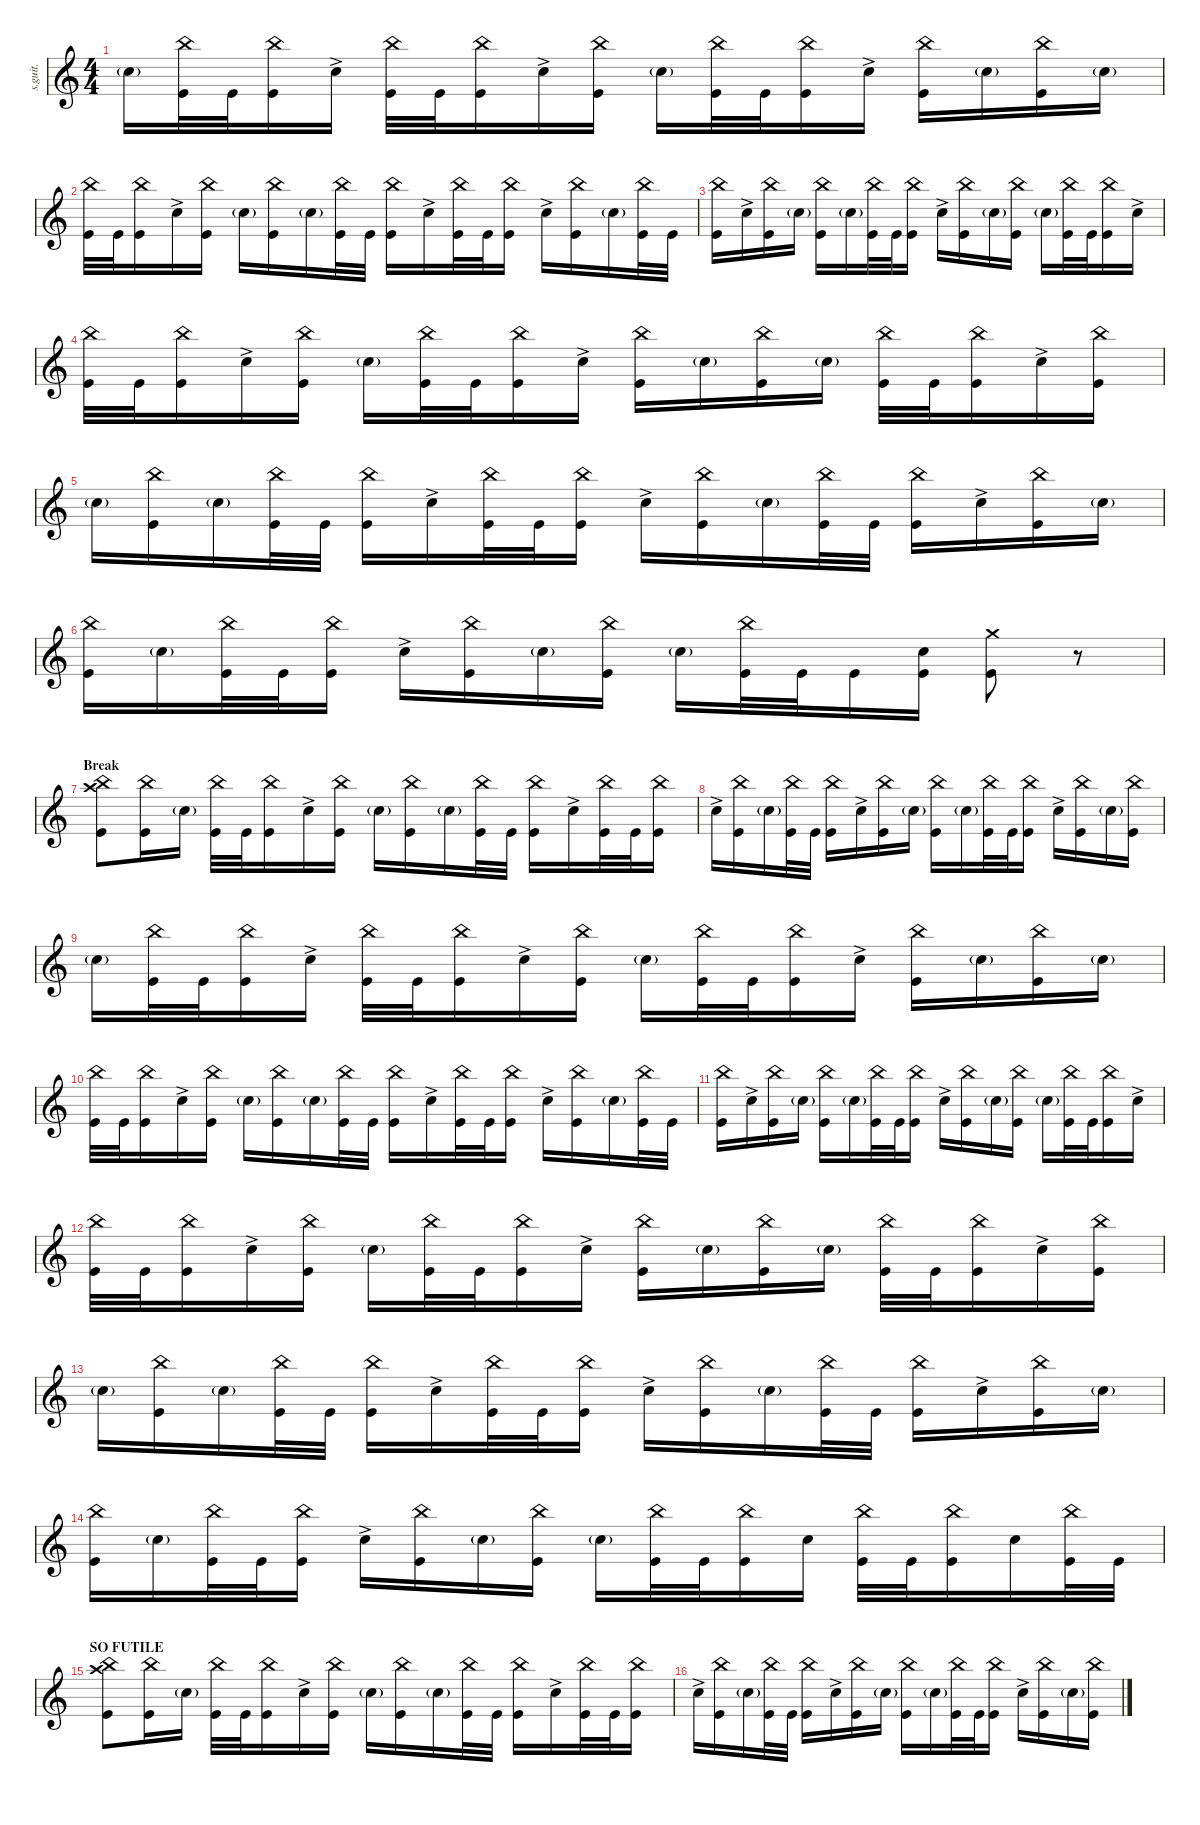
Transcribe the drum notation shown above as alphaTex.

\defaultSystemsLayout 4
\hideDynamics
\bracketExtendMode nobrackets
\track ("Tomas Haake (Drums)" "s.guit.") {instrument percussion}
\staff {score}
\articulation defaults
\ts (4 4)
\tempo (115 hide)
\clef g2
\ks c "Snare (hit) 2"{g}.16{lyrics (0 "") lyrics (1 "") lyrics (2 "") lyrics (3 "") lyrics (4 "") dy f}
("China (hit)" "Kick (hit)").32{lyrics (0 "") lyrics (1 "") lyrics (2 "") lyrics (3 "") lyrics (4 "") dy mf} "Kick (hit)".32{lyrics (0 "") lyrics (1 "") lyrics (2 "") lyrics (3 "") lyrics (4 "")} ("China (hit)" "Kick (hit)").16{lyrics (0 "") lyrics (1 "") lyrics (2 "") lyrics (3 "") lyrics (4 "") dy f} "Snare (hit) 2"{ac}.16{lyrics (0 "") lyrics (1 "") lyrics (2 "") lyrics (3 "") lyrics (4 "") dy pp} ("China (hit)" "Kick (hit)").32{lyrics (0 "") lyrics (1 "") lyrics (2 "") lyrics (3 "") lyrics (4 "") dy mf} "Kick (hit)".32{lyrics (0 "") lyrics (1 "") lyrics (2 "") lyrics (3 "") lyrics (4 "")} ("China (hit)" "Kick (hit)").16{lyrics (0 "") lyrics (1 "") lyrics (2 "") lyrics (3 "") lyrics (4 "") dy f} "Snare (hit) 2"{ac}.16{lyrics (0 "") lyrics (1 "") lyrics (2 "") lyrics (3 "") lyrics (4 "") dy pp} ("China (hit)" "Kick (hit)").16{lyrics (0 "") lyrics (1 "") lyrics (2 "") lyrics (3 "") lyrics (4 "") dy f} "Snare (hit) 2"{g}.16{lyrics (0 "") lyrics (1 "") lyrics (2 "") lyrics (3 "") lyrics (4 "")} ("China (hit)" "Kick (hit)").32{lyrics (0 "") lyrics (1 "") lyrics (2 "") lyrics (3 "") lyrics (4 "") dy mf} "Kick (hit)".32{lyrics (0 "") lyrics (1 "") lyrics (2 "") lyrics (3 "") lyrics (4 "")} ("China (hit)" "Kick (hit)").16{lyrics (0 "") lyrics (1 "") lyrics (2 "") lyrics (3 "") lyrics (4 "") dy f} "Snare (hit) 2"{ac}.16{lyrics (0 "") lyrics (1 "") lyrics (2 "") lyrics (3 "") lyrics (4 "") dy pp} ("China (hit)" "Kick (hit)").16{lyrics (0 "") lyrics (1 "") lyrics (2 "") lyrics (3 "") lyrics (4 "") dy f} "Snare (hit) 2"{g}.16{lyrics (0 "") lyrics (1 "") lyrics (2 "") lyrics (3 "") lyrics (4 "")} ("China (hit)" "Kick (hit)").16{lyrics (0 "") lyrics (1 "") lyrics (2 "") lyrics (3 "") lyrics (4 "")} "Snare (hit) 2"{g}.16{lyrics (0 "") lyrics (1 "") lyrics (2 "") lyrics (3 "") lyrics (4 "")} |
("China (hit)" "Kick (hit)").32{lyrics (0 "") lyrics (1 "") lyrics (2 "") lyrics (3 "") lyrics (4 "") dy mf} "Kick (hit)".32{lyrics (0 "") lyrics (1 "") lyrics (2 "") lyrics (3 "") lyrics (4 "")} ("China (hit)" "Kick (hit)").16{lyrics (0 "") lyrics (1 "") lyrics (2 "") lyrics (3 "") lyrics (4 "") dy f} "Snare (hit) 2"{ac}.16{lyrics (0 "") lyrics (1 "") lyrics (2 "") lyrics (3 "") lyrics (4 "") dy pp} ("China (hit)" "Kick (hit)").16{lyrics (0 "") lyrics (1 "") lyrics (2 "") lyrics (3 "") lyrics (4 "") dy f} "Snare (hit) 2"{g}.16{lyrics (0 "") lyrics (1 "") lyrics (2 "") lyrics (3 "") lyrics (4 "")} ("China (hit)" "Kick (hit)").16{lyrics (0 "") lyrics (1 "") lyrics (2 "") lyrics (3 "") lyrics (4 "")} "Snare (hit) 2"{g}.16{lyrics (0 "") lyrics (1 "") lyrics (2 "") lyrics (3 "") lyrics (4 "")} ("China (hit)" "Kick (hit)").32{lyrics (0 "") lyrics (1 "") lyrics (2 "") lyrics (3 "") lyrics (4 "") dy mf} "Kick (hit)".32{lyrics (0 "") lyrics (1 "") lyrics (2 "") lyrics (3 "") lyrics (4 "")} ("China (hit)" "Kick (hit)").16{lyrics (0 "") lyrics (1 "") lyrics (2 "") lyrics (3 "") lyrics (4 "") dy f} "Snare (hit) 2"{ac}.16{lyrics (0 "") lyrics (1 "") lyrics (2 "") lyrics (3 "") lyrics (4 "") dy pp} ("China (hit)" "Kick (hit)").32{lyrics (0 "") lyrics (1 "") lyrics (2 "") lyrics (3 "") lyrics (4 "") dy mf} "Kick (hit)".32{lyrics (0 "") lyrics (1 "") lyrics (2 "") lyrics (3 "") lyrics (4 "")} ("China (hit)" "Kick (hit)").16{lyrics (0 "") lyrics (1 "") lyrics (2 "") lyrics (3 "") lyrics (4 "") dy f} "Snare (hit) 2"{ac}.16{lyrics (0 "") lyrics (1 "") lyrics (2 "") lyrics (3 "") lyrics (4 "") dy pp} ("China (hit)" "Kick (hit)").16{lyrics (0 "") lyrics (1 "") lyrics (2 "") lyrics (3 "") lyrics (4 "") dy f} "Snare (hit) 2"{g}.16{lyrics (0 "") lyrics (1 "") lyrics (2 "") lyrics (3 "") lyrics (4 "")} ("China (hit)" "Kick (hit)").32{lyrics (0 "") lyrics (1 "") lyrics (2 "") lyrics (3 "") lyrics (4 "") dy mf} "Kick (hit)".32{lyrics (0 "") lyrics (1 "") lyrics (2 "") lyrics (3 "") lyrics (4 "")} |
("China (hit)" "Kick (hit)").16{lyrics (0 "") lyrics (1 "") lyrics (2 "") lyrics (3 "") lyrics (4 "") dy f} "Snare (hit) 2"{ac}.16{lyrics (0 "") lyrics (1 "") lyrics (2 "") lyrics (3 "") lyrics (4 "") dy pp} ("China (hit)" "Kick (hit)").16{lyrics (0 "") lyrics (1 "") lyrics (2 "") lyrics (3 "") lyrics (4 "") dy f} "Snare (hit) 2"{g}.16{lyrics (0 "") lyrics (1 "") lyrics (2 "") lyrics (3 "") lyrics (4 "")} ("China (hit)" "Kick (hit)").16{lyrics (0 "") lyrics (1 "") lyrics (2 "") lyrics (3 "") lyrics (4 "")} "Snare (hit) 2"{g}.16{lyrics (0 "") lyrics (1 "") lyrics (2 "") lyrics (3 "") lyrics (4 "")} ("China (hit)" "Kick (hit)").32{lyrics (0 "") lyrics (1 "") lyrics (2 "") lyrics (3 "") lyrics (4 "") dy mf} "Kick (hit)".32{lyrics (0 "") lyrics (1 "") lyrics (2 "") lyrics (3 "") lyrics (4 "")} ("China (hit)" "Kick (hit)").16{lyrics (0 "") lyrics (1 "") lyrics (2 "") lyrics (3 "") lyrics (4 "") dy f} "Snare (hit) 2"{ac}.16{lyrics (0 "") lyrics (1 "") lyrics (2 "") lyrics (3 "") lyrics (4 "") dy pp} ("China (hit)" "Kick (hit)").16{lyrics (0 "") lyrics (1 "") lyrics (2 "") lyrics (3 "") lyrics (4 "") dy f} "Snare (hit) 2"{g}.16{lyrics (0 "") lyrics (1 "") lyrics (2 "") lyrics (3 "") lyrics (4 "")} ("China (hit)" "Kick (hit)").16{lyrics (0 "") lyrics (1 "") lyrics (2 "") lyrics (3 "") lyrics (4 "")} "Snare (hit) 2"{g}.16{lyrics (0 "") lyrics (1 "") lyrics (2 "") lyrics (3 "") lyrics (4 "")} ("China (hit)" "Kick (hit)").32{lyrics (0 "") lyrics (1 "") lyrics (2 "") lyrics (3 "") lyrics (4 "") dy mf} "Kick (hit)".32{lyrics (0 "") lyrics (1 "") lyrics (2 "") lyrics (3 "") lyrics (4 "")} ("China (hit)" "Kick (hit)").16{lyrics (0 "") lyrics (1 "") lyrics (2 "") lyrics (3 "") lyrics (4 "") dy f} "Snare (hit) 2"{ac}.16{lyrics (0 "") lyrics (1 "") lyrics (2 "") lyrics (3 "") lyrics (4 "") dy pp} |
("China (hit)" "Kick (hit)").32{lyrics (0 "") lyrics (1 "") lyrics (2 "") lyrics (3 "") lyrics (4 "") dy mf} "Kick (hit)".32{lyrics (0 "") lyrics (1 "") lyrics (2 "") lyrics (3 "") lyrics (4 "")} ("China (hit)" "Kick (hit)").16{lyrics (0 "") lyrics (1 "") lyrics (2 "") lyrics (3 "") lyrics (4 "") dy f} "Snare (hit) 2"{ac}.16{lyrics (0 "") lyrics (1 "") lyrics (2 "") lyrics (3 "") lyrics (4 "") dy pp} ("China (hit)" "Kick (hit)").16{lyrics (0 "") lyrics (1 "") lyrics (2 "") lyrics (3 "") lyrics (4 "") dy f} "Snare (hit) 2"{g}.16{lyrics (0 "") lyrics (1 "") lyrics (2 "") lyrics (3 "") lyrics (4 "")} ("China (hit)" "Kick (hit)").32{lyrics (0 "") lyrics (1 "") lyrics (2 "") lyrics (3 "") lyrics (4 "") dy mf} "Kick (hit)".32{lyrics (0 "") lyrics (1 "") lyrics (2 "") lyrics (3 "") lyrics (4 "")} ("China (hit)" "Kick (hit)").16{lyrics (0 "") lyrics (1 "") lyrics (2 "") lyrics (3 "") lyrics (4 "") dy f} "Snare (hit) 2"{ac}.16{lyrics (0 "") lyrics (1 "") lyrics (2 "") lyrics (3 "") lyrics (4 "") dy pp} ("China (hit)" "Kick (hit)").16{lyrics (0 "") lyrics (1 "") lyrics (2 "") lyrics (3 "") lyrics (4 "") dy f} "Snare (hit) 2"{g}.16{lyrics (0 "") lyrics (1 "") lyrics (2 "") lyrics (3 "") lyrics (4 "")} ("China (hit)" "Kick (hit)").16{lyrics (0 "") lyrics (1 "") lyrics (2 "") lyrics (3 "") lyrics (4 "")} "Snare (hit) 2"{g}.16{lyrics (0 "") lyrics (1 "") lyrics (2 "") lyrics (3 "") lyrics (4 "")} ("China (hit)" "Kick (hit)").32{lyrics (0 "") lyrics (1 "") lyrics (2 "") lyrics (3 "") lyrics (4 "") dy mf} "Kick (hit)".32{lyrics (0 "") lyrics (1 "") lyrics (2 "") lyrics (3 "") lyrics (4 "")} ("China (hit)" "Kick (hit)").16{lyrics (0 "") lyrics (1 "") lyrics (2 "") lyrics (3 "") lyrics (4 "") dy f} "Snare (hit) 2"{ac}.16{lyrics (0 "") lyrics (1 "") lyrics (2 "") lyrics (3 "") lyrics (4 "") dy pp} ("China (hit)" "Kick (hit)").16{lyrics (0 "") lyrics (1 "") lyrics (2 "") lyrics (3 "") lyrics (4 "") dy f} |
"Snare (hit) 2"{g}.16{lyrics (0 "") lyrics (1 "") lyrics (2 "") lyrics (3 "") lyrics (4 "")} ("China (hit)" "Kick (hit)").16{lyrics (0 "") lyrics (1 "") lyrics (2 "") lyrics (3 "") lyrics (4 "")} "Snare (hit) 2"{g}.16{lyrics (0 "") lyrics (1 "") lyrics (2 "") lyrics (3 "") lyrics (4 "")} ("China (hit)" "Kick (hit)").32{lyrics (0 "") lyrics (1 "") lyrics (2 "") lyrics (3 "") lyrics (4 "") dy mf} "Kick (hit)".32{lyrics (0 "") lyrics (1 "") lyrics (2 "") lyrics (3 "") lyrics (4 "")} ("China (hit)" "Kick (hit)").16{lyrics (0 "") lyrics (1 "") lyrics (2 "") lyrics (3 "") lyrics (4 "") dy f} "Snare (hit) 2"{ac}.16{lyrics (0 "") lyrics (1 "") lyrics (2 "") lyrics (3 "") lyrics (4 "") dy pp} ("China (hit)" "Kick (hit)").32{lyrics (0 "") lyrics (1 "") lyrics (2 "") lyrics (3 "") lyrics (4 "") dy mf} "Kick (hit)".32{lyrics (0 "") lyrics (1 "") lyrics (2 "") lyrics (3 "") lyrics (4 "")} ("China (hit)" "Kick (hit)").16{lyrics (0 "") lyrics (1 "") lyrics (2 "") lyrics (3 "") lyrics (4 "") dy f} "Snare (hit) 2"{ac}.16{lyrics (0 "") lyrics (1 "") lyrics (2 "") lyrics (3 "") lyrics (4 "") dy pp} ("China (hit)" "Kick (hit)").16{lyrics (0 "") lyrics (1 "") lyrics (2 "") lyrics (3 "") lyrics (4 "") dy f} "Snare (hit) 2"{g}.16{lyrics (0 "") lyrics (1 "") lyrics (2 "") lyrics (3 "") lyrics (4 "")} ("China (hit)" "Kick (hit)").32{lyrics (0 "") lyrics (1 "") lyrics (2 "") lyrics (3 "") lyrics (4 "") dy mf} "Kick (hit)".32{lyrics (0 "") lyrics (1 "") lyrics (2 "") lyrics (3 "") lyrics (4 "")} ("China (hit)" "Kick (hit)").16{lyrics (0 "") lyrics (1 "") lyrics (2 "") lyrics (3 "") lyrics (4 "") dy f} "Snare (hit) 2"{ac}.16{lyrics (0 "") lyrics (1 "") lyrics (2 "") lyrics (3 "") lyrics (4 "") dy pp} ("China (hit)" "Kick (hit)").16{lyrics (0 "") lyrics (1 "") lyrics (2 "") lyrics (3 "") lyrics (4 "") dy f} "Snare (hit) 2"{g}.16{lyrics (0 "") lyrics (1 "") lyrics (2 "") lyrics (3 "") lyrics (4 "")} |
("China (hit)" "Kick (hit)").16{lyrics (0 "") lyrics (1 "") lyrics (2 "") lyrics (3 "") lyrics (4 "")} "Snare (hit) 2"{g}.16{lyrics (0 "") lyrics (1 "") lyrics (2 "") lyrics (3 "") lyrics (4 "")} ("China (hit)" "Kick (hit)").32{lyrics (0 "") lyrics (1 "") lyrics (2 "") lyrics (3 "") lyrics (4 "") dy mf} "Kick (hit)".32{lyrics (0 "") lyrics (1 "") lyrics (2 "") lyrics (3 "") lyrics (4 "")} ("China (hit)" "Kick (hit)").16{lyrics (0 "") lyrics (1 "") lyrics (2 "") lyrics (3 "") lyrics (4 "") dy f} "Snare (hit) 2"{ac}.16{lyrics (0 "") lyrics (1 "") lyrics (2 "") lyrics (3 "") lyrics (4 "") dy pp} ("China (hit)" "Kick (hit)").16{lyrics (0 "") lyrics (1 "") lyrics (2 "") lyrics (3 "") lyrics (4 "") dy f} "Snare (hit) 2"{g}.16{lyrics (0 "") lyrics (1 "") lyrics (2 "") lyrics (3 "") lyrics (4 "")} ("China (hit)" "Kick (hit)").16{lyrics (0 "") lyrics (1 "") lyrics (2 "") lyrics (3 "") lyrics (4 "")} "Snare (hit) 2"{g}.16{lyrics (0 "") lyrics (1 "") lyrics (2 "") lyrics (3 "") lyrics (4 "") dy fff} ("China (hit)" "Kick (hit)").32{lyrics (0 "") lyrics (1 "") lyrics (2 "") lyrics (3 "") lyrics (4 "") dy mp} "Kick (hit)".32{lyrics (0 "") lyrics (1 "") lyrics (2 "") lyrics (3 "") lyrics (4 "") dy mf} "Kick (hit)".16{lyrics (0 "") lyrics (1 "") lyrics (2 "") lyrics (3 "") lyrics (4 "") dy f} ("Snare (hit) 2" "Kick (hit)").16{lyrics (0 "") lyrics (1 "") lyrics (2 "") lyrics (3 "") lyrics (4 "")} ("Crash medium (hit)" "Kick (hit)").8{lyrics (0 "") lyrics (1 "") lyrics (2 "") lyrics (3 "") lyrics (4 "") dy mf} r.8 |
\section ("" "Break")
("China (hit)" "Crash high (hit)" "Kick (hit)").8{lyrics (0 "") lyrics (1 "") lyrics (2 "") lyrics (3 "") lyrics (4 "") dy f} ("China (hit)" "Kick (hit)").16{lyrics (0 "") lyrics (1 "") lyrics (2 "") lyrics (3 "") lyrics (4 "")} "Snare (hit) 2"{g}.16{lyrics (0 "") lyrics (1 "") lyrics (2 "") lyrics (3 "") lyrics (4 "")} ("China (hit)" "Kick (hit)").32{lyrics (0 "") lyrics (1 "") lyrics (2 "") lyrics (3 "") lyrics (4 "") dy mf} "Kick (hit)".32{lyrics (0 "") lyrics (1 "") lyrics (2 "") lyrics (3 "") lyrics (4 "")} ("China (hit)" "Kick (hit)").16{lyrics (0 "") lyrics (1 "") lyrics (2 "") lyrics (3 "") lyrics (4 "") dy f} "Snare (hit) 2"{ac}.16{lyrics (0 "") lyrics (1 "") lyrics (2 "") lyrics (3 "") lyrics (4 "") dy pp} ("China (hit)" "Kick (hit)").16{lyrics (0 "") lyrics (1 "") lyrics (2 "") lyrics (3 "") lyrics (4 "") dy f} "Snare (hit) 2"{g}.16{lyrics (0 "") lyrics (1 "") lyrics (2 "") lyrics (3 "") lyrics (4 "")} ("China (hit)" "Kick (hit)").16{lyrics (0 "") lyrics (1 "") lyrics (2 "") lyrics (3 "") lyrics (4 "")} "Snare (hit) 2"{g}.16{lyrics (0 "") lyrics (1 "") lyrics (2 "") lyrics (3 "") lyrics (4 "")} ("China (hit)" "Kick (hit)").32{lyrics (0 "") lyrics (1 "") lyrics (2 "") lyrics (3 "") lyrics (4 "") dy mf} "Kick (hit)".32{lyrics (0 "") lyrics (1 "") lyrics (2 "") lyrics (3 "") lyrics (4 "")} ("China (hit)" "Kick (hit)").16{lyrics (0 "") lyrics (1 "") lyrics (2 "") lyrics (3 "") lyrics (4 "") dy f} "Snare (hit) 2"{ac}.16{lyrics (0 "") lyrics (1 "") lyrics (2 "") lyrics (3 "") lyrics (4 "") dy pp} ("China (hit)" "Kick (hit)").32{lyrics (0 "") lyrics (1 "") lyrics (2 "") lyrics (3 "") lyrics (4 "") dy mf} "Kick (hit)".32{lyrics (0 "") lyrics (1 "") lyrics (2 "") lyrics (3 "") lyrics (4 "")} ("China (hit)" "Kick (hit)").16{lyrics (0 "") lyrics (1 "") lyrics (2 "") lyrics (3 "") lyrics (4 "") dy f} |
"Snare (hit) 2"{ac}.16{lyrics (0 "") lyrics (1 "") lyrics (2 "") lyrics (3 "") lyrics (4 "") dy pp} ("China (hit)" "Kick (hit)").16{lyrics (0 "") lyrics (1 "") lyrics (2 "") lyrics (3 "") lyrics (4 "") dy f} "Snare (hit) 2"{g}.16{lyrics (0 "") lyrics (1 "") lyrics (2 "") lyrics (3 "") lyrics (4 "")} ("China (hit)" "Kick (hit)").32{lyrics (0 "") lyrics (1 "") lyrics (2 "") lyrics (3 "") lyrics (4 "") dy mf} "Kick (hit)".32{lyrics (0 "") lyrics (1 "") lyrics (2 "") lyrics (3 "") lyrics (4 "")} ("China (hit)" "Kick (hit)").16{lyrics (0 "") lyrics (1 "") lyrics (2 "") lyrics (3 "") lyrics (4 "") dy f} "Snare (hit) 2"{ac}.16{lyrics (0 "") lyrics (1 "") lyrics (2 "") lyrics (3 "") lyrics (4 "") dy pp} ("China (hit)" "Kick (hit)").16{lyrics (0 "") lyrics (1 "") lyrics (2 "") lyrics (3 "") lyrics (4 "") dy f} "Snare (hit) 2"{g}.16{lyrics (0 "") lyrics (1 "") lyrics (2 "") lyrics (3 "") lyrics (4 "")} ("China (hit)" "Kick (hit)").16{lyrics (0 "") lyrics (1 "") lyrics (2 "") lyrics (3 "") lyrics (4 "")} "Snare (hit) 2"{g}.16{lyrics (0 "") lyrics (1 "") lyrics (2 "") lyrics (3 "") lyrics (4 "")} ("China (hit)" "Kick (hit)").32{lyrics (0 "") lyrics (1 "") lyrics (2 "") lyrics (3 "") lyrics (4 "") dy mf} "Kick (hit)".32{lyrics (0 "") lyrics (1 "") lyrics (2 "") lyrics (3 "") lyrics (4 "")} ("China (hit)" "Kick (hit)").16{lyrics (0 "") lyrics (1 "") lyrics (2 "") lyrics (3 "") lyrics (4 "") dy f} "Snare (hit) 2"{ac}.16{lyrics (0 "") lyrics (1 "") lyrics (2 "") lyrics (3 "") lyrics (4 "") dy pp} ("China (hit)" "Kick (hit)").16{lyrics (0 "") lyrics (1 "") lyrics (2 "") lyrics (3 "") lyrics (4 "") dy f} "Snare (hit) 2"{g}.16{lyrics (0 "") lyrics (1 "") lyrics (2 "") lyrics (3 "") lyrics (4 "")} ("China (hit)" "Kick (hit)").16{lyrics (0 "") lyrics (1 "") lyrics (2 "") lyrics (3 "") lyrics (4 "")} |
"Snare (hit) 2"{g}.16{lyrics (0 "") lyrics (1 "") lyrics (2 "") lyrics (3 "") lyrics (4 "")} ("China (hit)" "Kick (hit)").32{lyrics (0 "") lyrics (1 "") lyrics (2 "") lyrics (3 "") lyrics (4 "") dy mf} "Kick (hit)".32{lyrics (0 "") lyrics (1 "") lyrics (2 "") lyrics (3 "") lyrics (4 "")} ("China (hit)" "Kick (hit)").16{lyrics (0 "") lyrics (1 "") lyrics (2 "") lyrics (3 "") lyrics (4 "") dy f} "Snare (hit) 2"{ac}.16{lyrics (0 "") lyrics (1 "") lyrics (2 "") lyrics (3 "") lyrics (4 "") dy pp} ("China (hit)" "Kick (hit)").32{lyrics (0 "") lyrics (1 "") lyrics (2 "") lyrics (3 "") lyrics (4 "") dy mf} "Kick (hit)".32{lyrics (0 "") lyrics (1 "") lyrics (2 "") lyrics (3 "") lyrics (4 "")} ("China (hit)" "Kick (hit)").16{lyrics (0 "") lyrics (1 "") lyrics (2 "") lyrics (3 "") lyrics (4 "") dy f} "Snare (hit) 2"{ac}.16{lyrics (0 "") lyrics (1 "") lyrics (2 "") lyrics (3 "") lyrics (4 "") dy pp} ("China (hit)" "Kick (hit)").16{lyrics (0 "") lyrics (1 "") lyrics (2 "") lyrics (3 "") lyrics (4 "") dy f} "Snare (hit) 2"{g}.16{lyrics (0 "") lyrics (1 "") lyrics (2 "") lyrics (3 "") lyrics (4 "")} ("China (hit)" "Kick (hit)").32{lyrics (0 "") lyrics (1 "") lyrics (2 "") lyrics (3 "") lyrics (4 "") dy mf} "Kick (hit)".32{lyrics (0 "") lyrics (1 "") lyrics (2 "") lyrics (3 "") lyrics (4 "")} ("China (hit)" "Kick (hit)").16{lyrics (0 "") lyrics (1 "") lyrics (2 "") lyrics (3 "") lyrics (4 "") dy f} "Snare (hit) 2"{ac}.16{lyrics (0 "") lyrics (1 "") lyrics (2 "") lyrics (3 "") lyrics (4 "") dy pp} ("China (hit)" "Kick (hit)").16{lyrics (0 "") lyrics (1 "") lyrics (2 "") lyrics (3 "") lyrics (4 "") dy f} "Snare (hit) 2"{g}.16{lyrics (0 "") lyrics (1 "") lyrics (2 "") lyrics (3 "") lyrics (4 "")} ("China (hit)" "Kick (hit)").16{lyrics (0 "") lyrics (1 "") lyrics (2 "") lyrics (3 "") lyrics (4 "")} "Snare (hit) 2"{g}.16{lyrics (0 "") lyrics (1 "") lyrics (2 "") lyrics (3 "") lyrics (4 "")} |
("China (hit)" "Kick (hit)").32{lyrics (0 "") lyrics (1 "") lyrics (2 "") lyrics (3 "") lyrics (4 "") dy mf} "Kick (hit)".32{lyrics (0 "") lyrics (1 "") lyrics (2 "") lyrics (3 "") lyrics (4 "")} ("China (hit)" "Kick (hit)").16{lyrics (0 "") lyrics (1 "") lyrics (2 "") lyrics (3 "") lyrics (4 "") dy f} "Snare (hit) 2"{ac}.16{lyrics (0 "") lyrics (1 "") lyrics (2 "") lyrics (3 "") lyrics (4 "") dy pp} ("China (hit)" "Kick (hit)").16{lyrics (0 "") lyrics (1 "") lyrics (2 "") lyrics (3 "") lyrics (4 "") dy f} "Snare (hit) 2"{g}.16{lyrics (0 "") lyrics (1 "") lyrics (2 "") lyrics (3 "") lyrics (4 "")} ("China (hit)" "Kick (hit)").16{lyrics (0 "") lyrics (1 "") lyrics (2 "") lyrics (3 "") lyrics (4 "")} "Snare (hit) 2"{g}.16{lyrics (0 "") lyrics (1 "") lyrics (2 "") lyrics (3 "") lyrics (4 "")} ("China (hit)" "Kick (hit)").32{lyrics (0 "") lyrics (1 "") lyrics (2 "") lyrics (3 "") lyrics (4 "") dy mf} "Kick (hit)".32{lyrics (0 "") lyrics (1 "") lyrics (2 "") lyrics (3 "") lyrics (4 "")} ("China (hit)" "Kick (hit)").16{lyrics (0 "") lyrics (1 "") lyrics (2 "") lyrics (3 "") lyrics (4 "") dy f} "Snare (hit) 2"{ac}.16{lyrics (0 "") lyrics (1 "") lyrics (2 "") lyrics (3 "") lyrics (4 "") dy pp} ("China (hit)" "Kick (hit)").32{lyrics (0 "") lyrics (1 "") lyrics (2 "") lyrics (3 "") lyrics (4 "") dy mf} "Kick (hit)".32{lyrics (0 "") lyrics (1 "") lyrics (2 "") lyrics (3 "") lyrics (4 "")} ("China (hit)" "Kick (hit)").16{lyrics (0 "") lyrics (1 "") lyrics (2 "") lyrics (3 "") lyrics (4 "") dy f} "Snare (hit) 2"{ac}.16{lyrics (0 "") lyrics (1 "") lyrics (2 "") lyrics (3 "") lyrics (4 "") dy pp} ("China (hit)" "Kick (hit)").16{lyrics (0 "") lyrics (1 "") lyrics (2 "") lyrics (3 "") lyrics (4 "") dy f} "Snare (hit) 2"{g}.16{lyrics (0 "") lyrics (1 "") lyrics (2 "") lyrics (3 "") lyrics (4 "")} ("China (hit)" "Kick (hit)").32{lyrics (0 "") lyrics (1 "") lyrics (2 "") lyrics (3 "") lyrics (4 "") dy mf} "Kick (hit)".32{lyrics (0 "") lyrics (1 "") lyrics (2 "") lyrics (3 "") lyrics (4 "")} |
("China (hit)" "Kick (hit)").16{lyrics (0 "") lyrics (1 "") lyrics (2 "") lyrics (3 "") lyrics (4 "") dy f} "Snare (hit) 2"{ac}.16{lyrics (0 "") lyrics (1 "") lyrics (2 "") lyrics (3 "") lyrics (4 "") dy pp} ("China (hit)" "Kick (hit)").16{lyrics (0 "") lyrics (1 "") lyrics (2 "") lyrics (3 "") lyrics (4 "") dy f} "Snare (hit) 2"{g}.16{lyrics (0 "") lyrics (1 "") lyrics (2 "") lyrics (3 "") lyrics (4 "")} ("China (hit)" "Kick (hit)").16{lyrics (0 "") lyrics (1 "") lyrics (2 "") lyrics (3 "") lyrics (4 "")} "Snare (hit) 2"{g}.16{lyrics (0 "") lyrics (1 "") lyrics (2 "") lyrics (3 "") lyrics (4 "")} ("China (hit)" "Kick (hit)").32{lyrics (0 "") lyrics (1 "") lyrics (2 "") lyrics (3 "") lyrics (4 "") dy mf} "Kick (hit)".32{lyrics (0 "") lyrics (1 "") lyrics (2 "") lyrics (3 "") lyrics (4 "")} ("China (hit)" "Kick (hit)").16{lyrics (0 "") lyrics (1 "") lyrics (2 "") lyrics (3 "") lyrics (4 "") dy f} "Snare (hit) 2"{ac}.16{lyrics (0 "") lyrics (1 "") lyrics (2 "") lyrics (3 "") lyrics (4 "") dy pp} ("China (hit)" "Kick (hit)").16{lyrics (0 "") lyrics (1 "") lyrics (2 "") lyrics (3 "") lyrics (4 "") dy f} "Snare (hit) 2"{g}.16{lyrics (0 "") lyrics (1 "") lyrics (2 "") lyrics (3 "") lyrics (4 "")} ("China (hit)" "Kick (hit)").16{lyrics (0 "") lyrics (1 "") lyrics (2 "") lyrics (3 "") lyrics (4 "")} "Snare (hit) 2"{g}.16{lyrics (0 "") lyrics (1 "") lyrics (2 "") lyrics (3 "") lyrics (4 "")} ("China (hit)" "Kick (hit)").32{lyrics (0 "") lyrics (1 "") lyrics (2 "") lyrics (3 "") lyrics (4 "") dy mf} "Kick (hit)".32{lyrics (0 "") lyrics (1 "") lyrics (2 "") lyrics (3 "") lyrics (4 "")} ("China (hit)" "Kick (hit)").16{lyrics (0 "") lyrics (1 "") lyrics (2 "") lyrics (3 "") lyrics (4 "") dy f} "Snare (hit) 2"{ac}.16{lyrics (0 "") lyrics (1 "") lyrics (2 "") lyrics (3 "") lyrics (4 "") dy pp} |
("China (hit)" "Kick (hit)").32{lyrics (0 "") lyrics (1 "") lyrics (2 "") lyrics (3 "") lyrics (4 "") dy mf} "Kick (hit)".32{lyrics (0 "") lyrics (1 "") lyrics (2 "") lyrics (3 "") lyrics (4 "")} ("China (hit)" "Kick (hit)").16{lyrics (0 "") lyrics (1 "") lyrics (2 "") lyrics (3 "") lyrics (4 "") dy f} "Snare (hit) 2"{ac}.16{lyrics (0 "") lyrics (1 "") lyrics (2 "") lyrics (3 "") lyrics (4 "") dy pp} ("China (hit)" "Kick (hit)").16{lyrics (0 "") lyrics (1 "") lyrics (2 "") lyrics (3 "") lyrics (4 "") dy f} "Snare (hit) 2"{g}.16{lyrics (0 "") lyrics (1 "") lyrics (2 "") lyrics (3 "") lyrics (4 "")} ("China (hit)" "Kick (hit)").32{lyrics (0 "") lyrics (1 "") lyrics (2 "") lyrics (3 "") lyrics (4 "") dy mf} "Kick (hit)".32{lyrics (0 "") lyrics (1 "") lyrics (2 "") lyrics (3 "") lyrics (4 "")} ("China (hit)" "Kick (hit)").16{lyrics (0 "") lyrics (1 "") lyrics (2 "") lyrics (3 "") lyrics (4 "") dy f} "Snare (hit) 2"{ac}.16{lyrics (0 "") lyrics (1 "") lyrics (2 "") lyrics (3 "") lyrics (4 "") dy pp} ("China (hit)" "Kick (hit)").16{lyrics (0 "") lyrics (1 "") lyrics (2 "") lyrics (3 "") lyrics (4 "") dy f} "Snare (hit) 2"{g}.16{lyrics (0 "") lyrics (1 "") lyrics (2 "") lyrics (3 "") lyrics (4 "")} ("China (hit)" "Kick (hit)").16{lyrics (0 "") lyrics (1 "") lyrics (2 "") lyrics (3 "") lyrics (4 "")} "Snare (hit) 2"{g}.16{lyrics (0 "") lyrics (1 "") lyrics (2 "") lyrics (3 "") lyrics (4 "")} ("China (hit)" "Kick (hit)").32{lyrics (0 "") lyrics (1 "") lyrics (2 "") lyrics (3 "") lyrics (4 "") dy mf} "Kick (hit)".32{lyrics (0 "") lyrics (1 "") lyrics (2 "") lyrics (3 "") lyrics (4 "")} ("China (hit)" "Kick (hit)").16{lyrics (0 "") lyrics (1 "") lyrics (2 "") lyrics (3 "") lyrics (4 "") dy f} "Snare (hit) 2"{ac}.16{lyrics (0 "") lyrics (1 "") lyrics (2 "") lyrics (3 "") lyrics (4 "") dy pp} ("China (hit)" "Kick (hit)").16{lyrics (0 "") lyrics (1 "") lyrics (2 "") lyrics (3 "") lyrics (4 "") dy f} |
"Snare (hit) 2"{g}.16{lyrics (0 "") lyrics (1 "") lyrics (2 "") lyrics (3 "") lyrics (4 "")} ("China (hit)" "Kick (hit)").16{lyrics (0 "") lyrics (1 "") lyrics (2 "") lyrics (3 "") lyrics (4 "")} "Snare (hit) 2"{g}.16{lyrics (0 "") lyrics (1 "") lyrics (2 "") lyrics (3 "") lyrics (4 "")} ("China (hit)" "Kick (hit)").32{lyrics (0 "") lyrics (1 "") lyrics (2 "") lyrics (3 "") lyrics (4 "") dy mf} "Kick (hit)".32{lyrics (0 "") lyrics (1 "") lyrics (2 "") lyrics (3 "") lyrics (4 "")} ("China (hit)" "Kick (hit)").16{lyrics (0 "") lyrics (1 "") lyrics (2 "") lyrics (3 "") lyrics (4 "") dy f} "Snare (hit) 2"{ac}.16{lyrics (0 "") lyrics (1 "") lyrics (2 "") lyrics (3 "") lyrics (4 "") dy pp} ("China (hit)" "Kick (hit)").32{lyrics (0 "") lyrics (1 "") lyrics (2 "") lyrics (3 "") lyrics (4 "") dy mf} "Kick (hit)".32{lyrics (0 "") lyrics (1 "") lyrics (2 "") lyrics (3 "") lyrics (4 "")} ("China (hit)" "Kick (hit)").16{lyrics (0 "") lyrics (1 "") lyrics (2 "") lyrics (3 "") lyrics (4 "") dy f} "Snare (hit) 2"{ac}.16{lyrics (0 "") lyrics (1 "") lyrics (2 "") lyrics (3 "") lyrics (4 "") dy pp} ("China (hit)" "Kick (hit)").16{lyrics (0 "") lyrics (1 "") lyrics (2 "") lyrics (3 "") lyrics (4 "") dy f} "Snare (hit) 2"{g}.16{lyrics (0 "") lyrics (1 "") lyrics (2 "") lyrics (3 "") lyrics (4 "")} ("China (hit)" "Kick (hit)").32{lyrics (0 "") lyrics (1 "") lyrics (2 "") lyrics (3 "") lyrics (4 "") dy mf} "Kick (hit)".32{lyrics (0 "") lyrics (1 "") lyrics (2 "") lyrics (3 "") lyrics (4 "")} ("China (hit)" "Kick (hit)").16{lyrics (0 "") lyrics (1 "") lyrics (2 "") lyrics (3 "") lyrics (4 "") dy f} "Snare (hit) 2"{ac}.16{lyrics (0 "") lyrics (1 "") lyrics (2 "") lyrics (3 "") lyrics (4 "") dy pp} ("China (hit)" "Kick (hit)").16{lyrics (0 "") lyrics (1 "") lyrics (2 "") lyrics (3 "") lyrics (4 "") dy f} "Snare (hit) 2"{g}.16{lyrics (0 "") lyrics (1 "") lyrics (2 "") lyrics (3 "") lyrics (4 "")} |
("China (hit)" "Kick (hit)").16{lyrics (0 "") lyrics (1 "") lyrics (2 "") lyrics (3 "") lyrics (4 "")} "Snare (hit) 2"{g}.16{lyrics (0 "") lyrics (1 "") lyrics (2 "") lyrics (3 "") lyrics (4 "")} ("China (hit)" "Kick (hit)").32{lyrics (0 "") lyrics (1 "") lyrics (2 "") lyrics (3 "") lyrics (4 "") dy mf} "Kick (hit)".32{lyrics (0 "") lyrics (1 "") lyrics (2 "") lyrics (3 "") lyrics (4 "")} ("China (hit)" "Kick (hit)").16{lyrics (0 "") lyrics (1 "") lyrics (2 "") lyrics (3 "") lyrics (4 "") dy f} "Snare (hit) 2"{ac}.16{lyrics (0 "") lyrics (1 "") lyrics (2 "") lyrics (3 "") lyrics (4 "") dy pp} ("China (hit)" "Kick (hit)").16{lyrics (0 "") lyrics (1 "") lyrics (2 "") lyrics (3 "") lyrics (4 "") dy f} "Snare (hit) 2"{g}.16{lyrics (0 "") lyrics (1 "") lyrics (2 "") lyrics (3 "") lyrics (4 "")} ("China (hit)" "Kick (hit)").16{lyrics (0 "") lyrics (1 "") lyrics (2 "") lyrics (3 "") lyrics (4 "")} "Snare (hit) 2"{g}.16{lyrics (0 "") lyrics (1 "") lyrics (2 "") lyrics (3 "") lyrics (4 "") dy fff} ("China (hit)" "Kick (hit)").32{lyrics (0 "") lyrics (1 "") lyrics (2 "") lyrics (3 "") lyrics (4 "") dy mp} "Kick (hit)".32{lyrics (0 "") lyrics (1 "") lyrics (2 "") lyrics (3 "") lyrics (4 "") dy mf} ("China (hit)" "Kick (hit)").16{lyrics (0 "") lyrics (1 "") lyrics (2 "") lyrics (3 "") lyrics (4 "") dy f} "Snare (hit) 2".16{lyrics (0 "") lyrics (1 "") lyrics (2 "") lyrics (3 "") lyrics (4 "") dy mf} ("China (hit)" "Kick (hit)").32{lyrics (0 "") lyrics (1 "") lyrics (2 "") lyrics (3 "") lyrics (4 "") dy f} "Kick (hit)".32{lyrics (0 "") lyrics (1 "") lyrics (2 "") lyrics (3 "") lyrics (4 "") dy mf} ("China (hit)" "Kick (hit)").16{lyrics (0 "") lyrics (1 "") lyrics (2 "") lyrics (3 "") lyrics (4 "") dy f} "Snare (hit) 2".16{lyrics (0 "") lyrics (1 "") lyrics (2 "") lyrics (3 "") lyrics (4 "")} ("China (hit)" "Kick (hit)").32{lyrics (0 "") lyrics (1 "") lyrics (2 "") lyrics (3 "") lyrics (4 "")} "Kick (hit)".32{lyrics (0 "") lyrics (1 "") lyrics (2 "") lyrics (3 "") lyrics (4 "") dy mf} |
\section ("" "SO FUTILE")
("China (hit)" "Crash high (hit)" "Kick (hit)").8{lyrics (0 "") lyrics (1 "") lyrics (2 "") lyrics (3 "") lyrics (4 "") dy f} ("China (hit)" "Kick (hit)").16{lyrics (0 "") lyrics (1 "") lyrics (2 "") lyrics (3 "") lyrics (4 "")} "Snare (hit) 2"{g}.16{lyrics (0 "") lyrics (1 "") lyrics (2 "") lyrics (3 "") lyrics (4 "")} ("China (hit)" "Kick (hit)").32{lyrics (0 "") lyrics (1 "") lyrics (2 "") lyrics (3 "") lyrics (4 "") dy mf} "Kick (hit)".32{lyrics (0 "") lyrics (1 "") lyrics (2 "") lyrics (3 "") lyrics (4 "")} ("China (hit)" "Kick (hit)").16{lyrics (0 "") lyrics (1 "") lyrics (2 "") lyrics (3 "") lyrics (4 "") dy f} "Snare (hit) 2"{ac}.16{lyrics (0 "") lyrics (1 "") lyrics (2 "") lyrics (3 "") lyrics (4 "") dy pp} ("China (hit)" "Kick (hit)").16{lyrics (0 "") lyrics (1 "") lyrics (2 "") lyrics (3 "") lyrics (4 "") dy f} "Snare (hit) 2"{g}.16{lyrics (0 "") lyrics (1 "") lyrics (2 "") lyrics (3 "") lyrics (4 "")} ("China (hit)" "Kick (hit)").16{lyrics (0 "") lyrics (1 "") lyrics (2 "") lyrics (3 "") lyrics (4 "")} "Snare (hit) 2"{g}.16{lyrics (0 "") lyrics (1 "") lyrics (2 "") lyrics (3 "") lyrics (4 "")} ("China (hit)" "Kick (hit)").32{lyrics (0 "") lyrics (1 "") lyrics (2 "") lyrics (3 "") lyrics (4 "") dy mf} "Kick (hit)".32{lyrics (0 "") lyrics (1 "") lyrics (2 "") lyrics (3 "") lyrics (4 "")} ("China (hit)" "Kick (hit)").16{lyrics (0 "") lyrics (1 "") lyrics (2 "") lyrics (3 "") lyrics (4 "") dy f} "Snare (hit) 2"{ac}.16{lyrics (0 "") lyrics (1 "") lyrics (2 "") lyrics (3 "") lyrics (4 "") dy pp} ("China (hit)" "Kick (hit)").32{lyrics (0 "") lyrics (1 "") lyrics (2 "") lyrics (3 "") lyrics (4 "") dy mf} "Kick (hit)".32{lyrics (0 "") lyrics (1 "") lyrics (2 "") lyrics (3 "") lyrics (4 "")} ("China (hit)" "Kick (hit)").16{lyrics (0 "") lyrics (1 "") lyrics (2 "") lyrics (3 "") lyrics (4 "") dy f} |
"Snare (hit) 2"{ac}.16{lyrics (0 "") lyrics (1 "") lyrics (2 "") lyrics (3 "") lyrics (4 "") dy pp} ("China (hit)" "Kick (hit)").16{lyrics (0 "") lyrics (1 "") lyrics (2 "") lyrics (3 "") lyrics (4 "") dy f} "Snare (hit) 2"{g}.16{lyrics (0 "") lyrics (1 "") lyrics (2 "") lyrics (3 "") lyrics (4 "")} ("China (hit)" "Kick (hit)").32{lyrics (0 "") lyrics (1 "") lyrics (2 "") lyrics (3 "") lyrics (4 "") dy mf} "Kick (hit)".32{lyrics (0 "") lyrics (1 "") lyrics (2 "") lyrics (3 "") lyrics (4 "")} ("China (hit)" "Kick (hit)").16{lyrics (0 "") lyrics (1 "") lyrics (2 "") lyrics (3 "") lyrics (4 "") dy f} "Snare (hit) 2"{ac}.16{lyrics (0 "") lyrics (1 "") lyrics (2 "") lyrics (3 "") lyrics (4 "") dy pp} ("China (hit)" "Kick (hit)").16{lyrics (0 "") lyrics (1 "") lyrics (2 "") lyrics (3 "") lyrics (4 "") dy f} "Snare (hit) 2"{g}.16{lyrics (0 "") lyrics (1 "") lyrics (2 "") lyrics (3 "") lyrics (4 "")} ("China (hit)" "Kick (hit)").16{lyrics (0 "") lyrics (1 "") lyrics (2 "") lyrics (3 "") lyrics (4 "")} "Snare (hit) 2"{g}.16{lyrics (0 "") lyrics (1 "") lyrics (2 "") lyrics (3 "") lyrics (4 "")} ("China (hit)" "Kick (hit)").32{lyrics (0 "") lyrics (1 "") lyrics (2 "") lyrics (3 "") lyrics (4 "") dy mf} "Kick (hit)".32{lyrics (0 "") lyrics (1 "") lyrics (2 "") lyrics (3 "") lyrics (4 "")} ("China (hit)" "Kick (hit)").16{lyrics (0 "") lyrics (1 "") lyrics (2 "") lyrics (3 "") lyrics (4 "") dy f} "Snare (hit) 2"{ac}.16{lyrics (0 "") lyrics (1 "") lyrics (2 "") lyrics (3 "") lyrics (4 "") dy pp} ("China (hit)" "Kick (hit)").16{lyrics (0 "") lyrics (1 "") lyrics (2 "") lyrics (3 "") lyrics (4 "") dy f} "Snare (hit) 2"{g}.16{lyrics (0 "") lyrics (1 "") lyrics (2 "") lyrics (3 "") lyrics (4 "")} ("China (hit)" "Kick (hit)").16{lyrics (0 "") lyrics (1 "") lyrics (2 "") lyrics (3 "") lyrics (4 "")}
